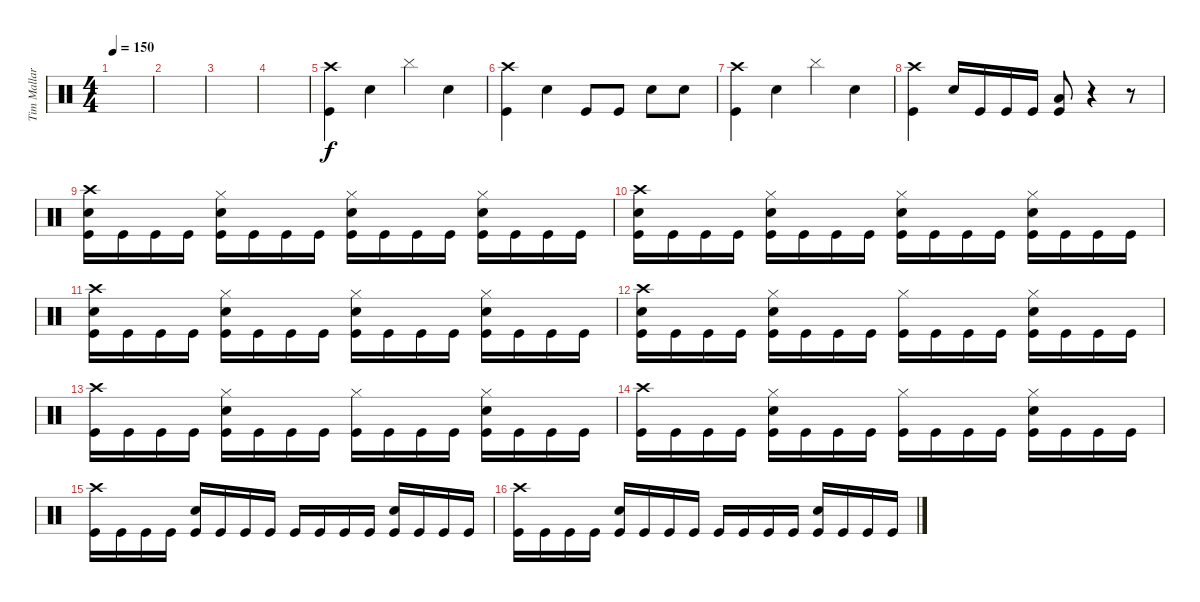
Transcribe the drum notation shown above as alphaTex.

\track ("Tim Mallare-Drums" "Tim Mallar") {instrument percussion}
\staff {score}
\articulation defaults
\ts (4 4)
\tempo 150
\clef neutral
\ks c
|
|
|
|
("Crash high (hit)" "Kick (hit)").4 "Electric Snare (hit)".4 "Cymbal (hit)".4 "Electric Snare (hit)".4 |
("Crash high (hit)" "Kick (hit)").4 "Electric Snare (hit)".4 "Kick (hit)".8 "Kick (hit)".8 "Electric Snare (hit)".8 "Electric Snare (hit)".8 |
("Crash high (hit)" "Kick (hit)").4 "Electric Snare (hit)".4 "Cymbal (hit)".4 "Electric Snare (hit)".4 |
("Crash high (hit)" "Kick (hit)").4 "Electric Snare (hit)".16 "Kick (hit)".16 "Kick (hit)".16 "Kick (hit)".16 ("Low Tom (hit)" "Kick (hit)").8 r.4 r.8 |
("Crash high (hit)" "Electric Snare (hit)" "Kick (hit)").16 "Kick (hit)".16 "Kick (hit)".16 "Kick (hit)".16 ("Hi-Hat (closed)" "Electric Snare (hit)" "Kick (hit)").16 "Kick (hit)".16 "Kick (hit)".16 "Kick (hit)".16 ("Hi-Hat (closed)" "Electric Snare (hit)" "Kick (hit)").16 "Kick (hit)".16 "Kick (hit)".16 "Kick (hit)".16 ("Hi-Hat (closed)" "Electric Snare (hit)" "Kick (hit)").16 "Kick (hit)".16 "Kick (hit)".16 "Kick (hit)".16 |
("Crash high (hit)" "Electric Snare (hit)" "Kick (hit)").16 "Kick (hit)".16 "Kick (hit)".16 "Kick (hit)".16 ("Hi-Hat (closed)" "Electric Snare (hit)" "Kick (hit)").16 "Kick (hit)".16 "Kick (hit)".16 "Kick (hit)".16 ("Hi-Hat (closed)" "Electric Snare (hit)" "Kick (hit)").16 "Kick (hit)".16 "Kick (hit)".16 "Kick (hit)".16 ("Hi-Hat (closed)" "Electric Snare (hit)" "Kick (hit)").16 "Kick (hit)".16 "Kick (hit)".16 "Kick (hit)".16 |
("Crash high (hit)" "Electric Snare (hit)" "Kick (hit)").16 "Kick (hit)".16 "Kick (hit)".16 "Kick (hit)".16 ("Hi-Hat (closed)" "Electric Snare (hit)" "Kick (hit)").16 "Kick (hit)".16 "Kick (hit)".16 "Kick (hit)".16 ("Hi-Hat (closed)" "Electric Snare (hit)" "Kick (hit)").16 "Kick (hit)".16 "Kick (hit)".16 "Kick (hit)".16 ("Hi-Hat (closed)" "Electric Snare (hit)" "Kick (hit)").16 "Kick (hit)".16 "Kick (hit)".16 "Kick (hit)".16 |
("Crash high (hit)" "Electric Snare (hit)" "Kick (hit)").16 "Kick (hit)".16 "Kick (hit)".16 "Kick (hit)".16 ("Hi-Hat (closed)" "Electric Snare (hit)" "Kick (hit)").16 "Kick (hit)".16 "Kick (hit)".16 "Kick (hit)".16 ("Hi-Hat (closed)" "Kick (hit)").16 "Kick (hit)".16 "Kick (hit)".16 "Kick (hit)".16 ("Hi-Hat (closed)" "Electric Snare (hit)" "Kick (hit)").16 "Kick (hit)".16 "Kick (hit)".16 "Kick (hit)".16 |
("Crash high (hit)" "Kick (hit)").16 "Kick (hit)".16 "Kick (hit)".16 "Kick (hit)".16 ("Hi-Hat (closed)" "Electric Snare (hit)" "Kick (hit)").16 "Kick (hit)".16 "Kick (hit)".16 "Kick (hit)".16 ("Hi-Hat (closed)" "Kick (hit)").16 "Kick (hit)".16 "Kick (hit)".16 "Kick (hit)".16 ("Hi-Hat (closed)" "Electric Snare (hit)" "Kick (hit)").16 "Kick (hit)".16 "Kick (hit)".16 "Kick (hit)".16 |
("Crash high (hit)" "Kick (hit)").16 "Kick (hit)".16 "Kick (hit)".16 "Kick (hit)".16 ("Hi-Hat (closed)" "Electric Snare (hit)" "Kick (hit)").16 "Kick (hit)".16 "Kick (hit)".16 "Kick (hit)".16 ("Hi-Hat (closed)" "Kick (hit)").16 "Kick (hit)".16 "Kick (hit)".16 "Kick (hit)".16 ("Hi-Hat (closed)" "Electric Snare (hit)" "Kick (hit)").16 "Kick (hit)".16 "Kick (hit)".16 "Kick (hit)".16 |
("Crash high (hit)" "Kick (hit)").16 "Kick (hit)".16 "Kick (hit)".16 "Kick (hit)".16 ("Electric Snare (hit)" "Kick (hit)").16 "Kick (hit)".16 "Kick (hit)".16 "Kick (hit)".16 "Kick (hit)".16 "Kick (hit)".16 "Kick (hit)".16 "Kick (hit)".16 ("Electric Snare (hit)" "Kick (hit)").16 "Kick (hit)".16 "Kick (hit)".16 "Kick (hit)".16 |
("Crash high (hit)" "Kick (hit)").16 "Kick (hit)".16 "Kick (hit)".16 "Kick (hit)".16 ("Electric Snare (hit)" "Kick (hit)").16 "Kick (hit)".16 "Kick (hit)".16 "Kick (hit)".16 "Kick (hit)".16 "Kick (hit)".16 "Kick (hit)".16 "Kick (hit)".16 ("Electric Snare (hit)" "Kick (hit)").16 "Kick (hit)".16 "Kick (hit)".16 "Kick (hit)".16
